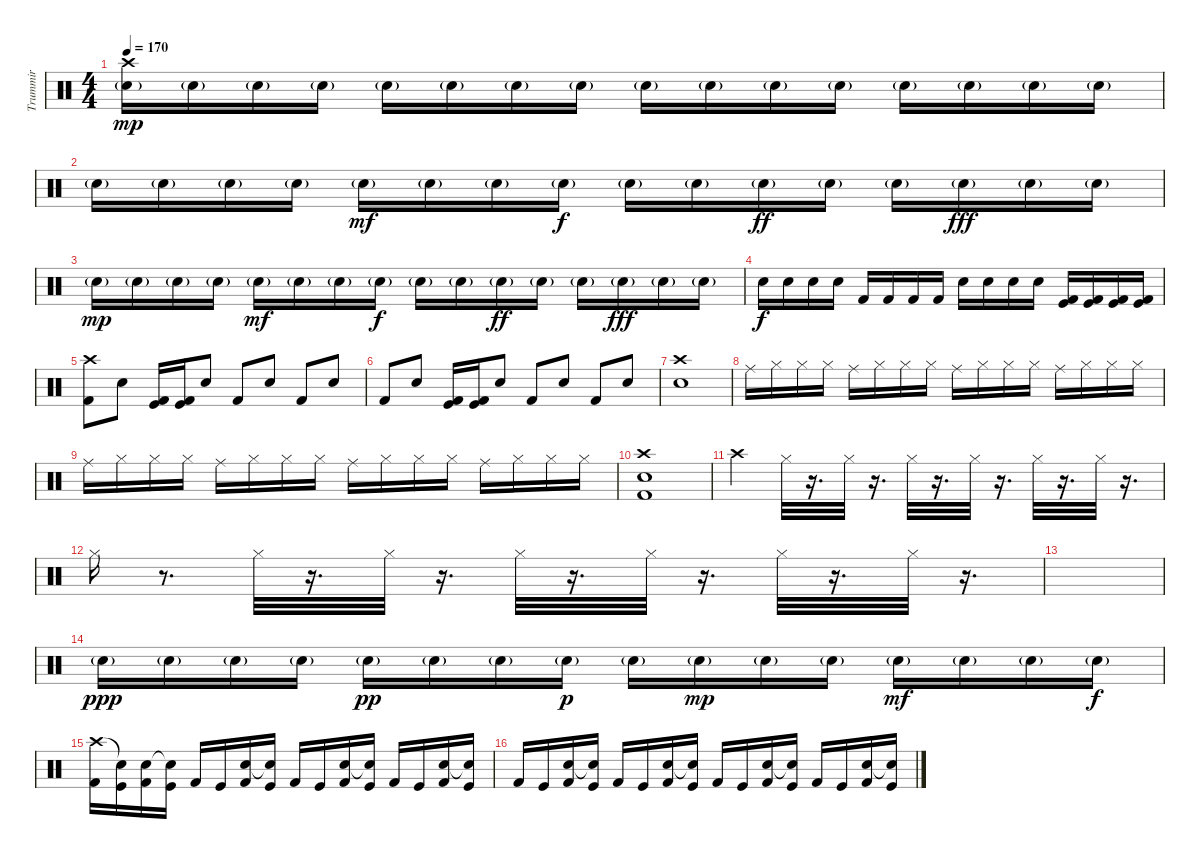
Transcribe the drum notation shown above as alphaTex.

\track ("Trummir" "Trummir") {instrument percussion}
\staff {score}
\articulation defaults
\ts (4 4)
\tempo 170
\clef neutral
\ks c
("Crash high (hit)" "Snare (hit) 2"{g}).16{dy mp} "Snare (hit) 2"{g}.16 "Snare (hit) 2"{g}.16 "Snare (hit) 2"{g}.16 "Snare (hit) 2"{g}.16 "Snare (hit) 2"{g}.16 "Snare (hit) 2"{g}.16 "Snare (hit) 2"{g}.16 "Snare (hit) 2"{g}.16 "Snare (hit) 2"{g}.16 "Snare (hit) 2"{g}.16 "Snare (hit) 2"{g}.16 "Snare (hit) 2"{g}.16 "Snare (hit) 2"{g}.16 "Snare (hit) 2"{g}.16 "Snare (hit) 2"{g}.16 |
"Snare (hit) 2"{g}.16 "Snare (hit) 2"{g}.16 "Snare (hit) 2"{g}.16 "Snare (hit) 2"{g}.16 "Snare (hit) 2"{g}.16{dy mf} "Snare (hit) 2"{g}.16 "Snare (hit) 2"{g}.16 "Snare (hit) 2"{g}.16{dy f} "Snare (hit) 2"{g}.16 "Snare (hit) 2"{g}.16 "Snare (hit) 2"{g}.16{dy ff} "Snare (hit) 2"{g}.16 "Snare (hit) 2"{g}.16 "Snare (hit) 2"{g}.16{dy fff} "Snare (hit) 2"{g}.16 "Snare (hit) 2"{g}.16 |
"Snare (hit) 2"{g}.16{dy mp} "Snare (hit) 2"{g}.16 "Snare (hit) 2"{g}.16 "Snare (hit) 2"{g}.16 "Snare (hit) 2"{g}.16{dy mf} "Snare (hit) 2"{g}.16 "Snare (hit) 2"{g}.16 "Snare (hit) 2"{g}.16{dy f} "Snare (hit) 2"{g}.16 "Snare (hit) 2"{g}.16 "Snare (hit) 2"{g}.16{dy ff} "Snare (hit) 2"{g}.16 "Snare (hit) 2"{g}.16 "Snare (hit) 2"{g}.16{dy fff} "Snare (hit) 2"{g}.16 "Snare (hit) 2"{g}.16 |
"Snare (hit) 2".16{dy f} "Snare (hit) 2".16 "Snare (hit) 2".16 "Snare (hit) 2".16 "Kick (hit) 2".16 "Kick (hit) 2".16 "Kick (hit) 2".16 "Kick (hit) 2".16 "Snare (hit) 2".16 "Snare (hit) 2".16 "Snare (hit) 2".16 "Snare (hit) 2".16 ("Kick (hit) 2" "Kick (hit)").16 ("Kick (hit) 2" "Kick (hit)").16 ("Kick (hit) 2" "Kick (hit)").16 ("Kick (hit) 2" "Kick (hit)").16 |
("Crash high (hit)" "Kick (hit) 2").8 "Snare (hit) 2".8 ("Kick (hit) 2" "Kick (hit)").16 ("Kick (hit) 2" "Kick (hit)").16 "Snare (hit) 2".8 "Kick (hit) 2".8 "Snare (hit) 2".8 "Kick (hit) 2".8 "Snare (hit) 2".8 |
"Kick (hit) 2".8 "Snare (hit) 2".8 ("Kick (hit) 2" "Kick (hit)").16 ("Kick (hit) 2" "Kick (hit)").16 "Snare (hit) 2".8 "Kick (hit) 2".8 "Snare (hit) 2".8 "Kick (hit) 2".8 "Snare (hit) 2".8 |
("Crash high (hit)" "Snare (hit) 2").1 |
"Ride (middle)".16 "Hi-Hat (closed)".16 "Hi-Hat (closed)".16 "Hi-Hat (closed)".16 "Ride (middle)".16 "Hi-Hat (closed)".16 "Hi-Hat (closed)".16 "Hi-Hat (closed)".16 "Ride (middle)".16 "Hi-Hat (closed)".16 "Hi-Hat (closed)".16 "Hi-Hat (closed)".16 "Ride (middle)".16 "Hi-Hat (closed)".16 "Hi-Hat (closed)".16 "Hi-Hat (closed)".16 |
"Ride (middle)".16 "Hi-Hat (closed)".16 "Hi-Hat (closed)".16 "Hi-Hat (closed)".16 "Ride (middle)".16 "Hi-Hat (closed)".16 "Hi-Hat (closed)".16 "Hi-Hat (closed)".16 "Ride (middle)".16 "Hi-Hat (closed)".16 "Hi-Hat (closed)".16 "Hi-Hat (closed)".16 "Ride (middle)".16 "Hi-Hat (closed)".16 "Hi-Hat (closed)".16 "Hi-Hat (closed)".16 |
("Crash high (hit)" "Snare (hit) 2" "Kick (hit) 2").1 |
"Crash high (hit)".4 "Hi-Hat (closed)".32 r.16{d} "Hi-Hat (closed)".32 r.16{d} "Hi-Hat (closed)".32 r.16{d} "Hi-Hat (closed)".32 r.16{d} "Hi-Hat (closed)".32 r.16{d} "Hi-Hat (closed)".32 r.16{d} |
"Hi-Hat (closed)".16 r.8{d} "Hi-Hat (closed)".32 r.16{d} "Hi-Hat (closed)".32 r.16{d} "Hi-Hat (closed)".32 r.16{d} "Hi-Hat (closed)".32 r.16{d} "Hi-Hat (closed)".32 r.16{d} "Hi-Hat (closed)".32 r.16{d} |
|
"Snare (hit) 2"{g}.16{dy ppp} "Snare (hit) 2"{g}.16 "Snare (hit) 2"{g}.16 "Snare (hit) 2"{g}.16 "Snare (hit) 2"{g}.16{dy pp} "Snare (hit) 2"{g}.16 "Snare (hit) 2"{g}.16 "Snare (hit) 2"{g}.16{dy p} "Snare (hit) 2"{g}.16 "Snare (hit) 2"{g}.16{dy mp} "Snare (hit) 2"{g}.16 "Snare (hit) 2"{g}.16 "Snare (hit) 2"{g}.16{dy mf} "Snare (hit) 2"{g}.16 "Snare (hit) 2"{g}.16 "Snare (hit) 2"{g}.16{dy f} |
("Crash high (hit)" "Kick (hit) 2").16 ("Snare (hit)"{t} "Kick (hit)").16 ("Snare (hit) 2" "Kick (hit) 2").16 ("Snare (hit)"{t} "Kick (hit)").16 "Kick (hit) 2".16 "Kick (hit)".16 ("Snare (hit) 2" "Kick (hit) 2").16 ("Snare (hit)"{t} "Kick (hit)").16 "Kick (hit) 2".16 "Kick (hit)".16 ("Snare (hit) 2" "Kick (hit) 2").16 ("Snare (hit)"{t} "Kick (hit)").16 "Kick (hit) 2".16 "Kick (hit)".16 ("Snare (hit) 2" "Kick (hit) 2").16 ("Snare (hit) 2"{t} "Kick (hit)").16 |
"Kick (hit) 2".16 "Kick (hit)".16 ("Snare (hit) 2" "Kick (hit) 2").16 ("Snare (hit)"{t} "Kick (hit)").16 "Kick (hit) 2".16 "Kick (hit)".16 ("Snare (hit) 2" "Kick (hit) 2").16 ("Snare (hit)"{t} "Kick (hit)").16 "Kick (hit) 2".16 "Kick (hit)".16 ("Snare (hit) 2" "Kick (hit) 2").16 ("Snare (hit)"{t} "Kick (hit)").16 "Kick (hit) 2".16 "Kick (hit)".16 ("Snare (hit) 2" "Kick (hit) 2").16 ("Snare (hit) 2"{t} "Kick (hit)").16
